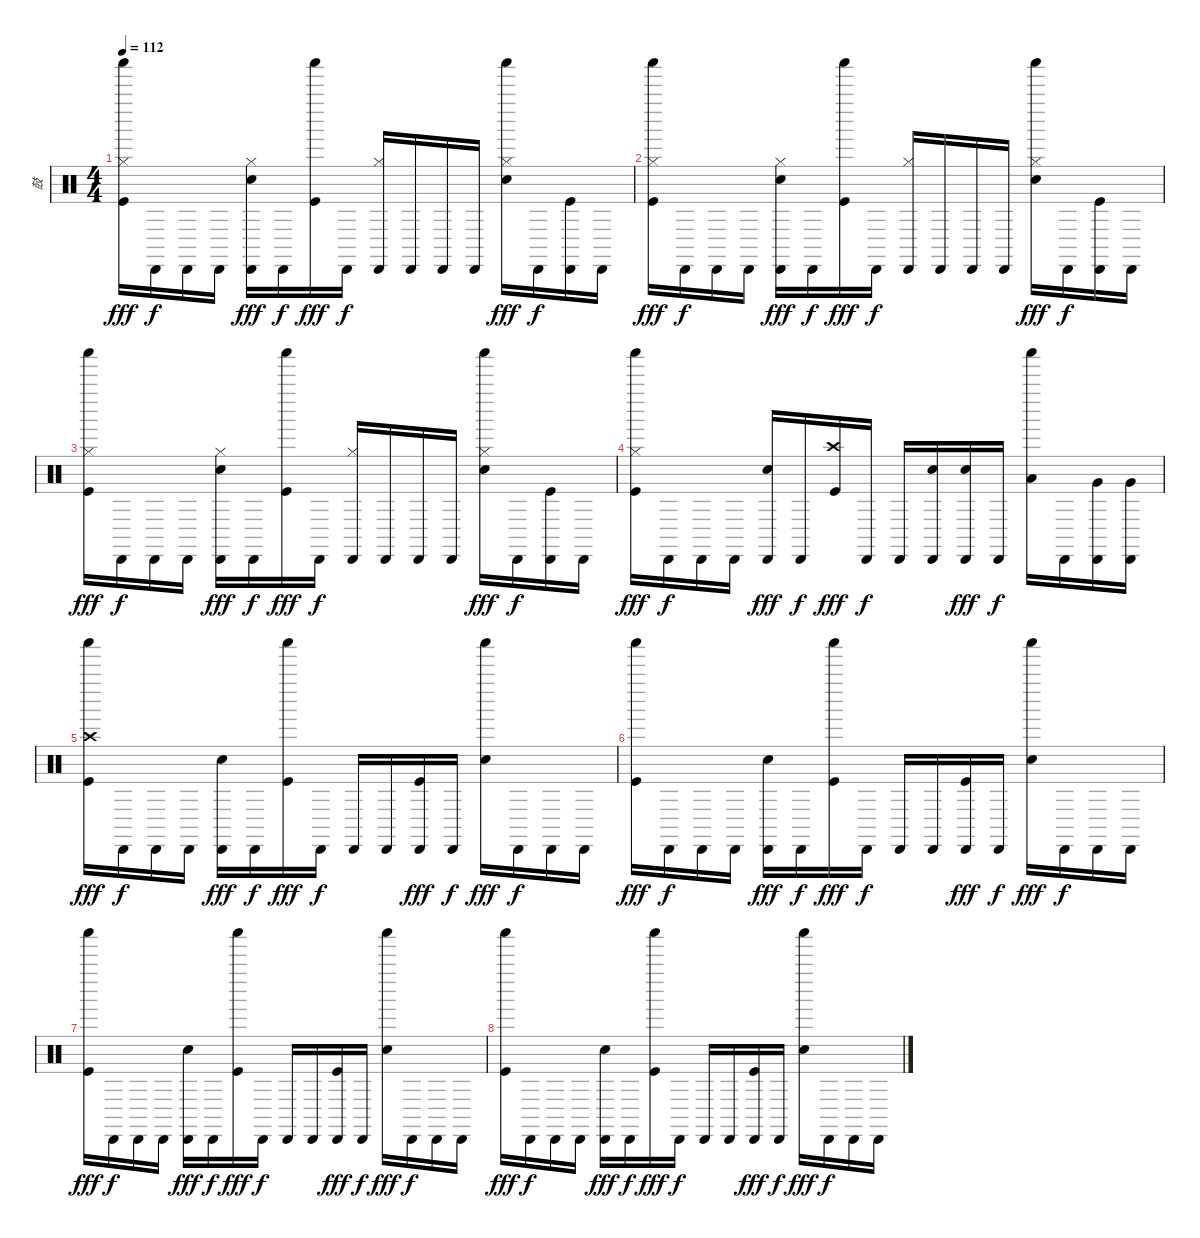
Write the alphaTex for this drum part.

\track ("鼓" "鼓") {instrument percussion}
\staff {score}
\articulation defaults
\ts (4 4)
\tempo 112
\clef neutral
\ks c
("Shaker (hit)" "Hi-Hat (closed)" "Kick (hit)").16{dy fff} "Cabasa (hit)".16{dy f} "Cabasa (hit)".16 "Cabasa (hit)".16 ("Cabasa (hit)" "Hi-Hat (closed)" "Electric Snare (hit)").16{dy fff} "Cabasa (hit)".16{dy f} ("Shaker (hit)" "Kick (hit)").16{dy fff} "Cabasa (hit)".16{dy f} ("Cabasa (hit)" "Hi-Hat (closed)").16 "Cabasa (hit)".16 "Cabasa (hit)".16 "Cabasa (hit)".16 ("Shaker (hit)" "Hi-Hat (closed)" "Electric Snare (hit)").16{dy fff} "Cabasa (hit)".16{dy f} ("Cabasa (hit)" "Kick (hit)").16 "Cabasa (hit)".16 |
("Shaker (hit)" "Hi-Hat (closed)" "Kick (hit)").16{dy fff} "Cabasa (hit)".16{dy f} "Cabasa (hit)".16 "Cabasa (hit)".16 ("Cabasa (hit)" "Hi-Hat (closed)" "Electric Snare (hit)").16{dy fff} "Cabasa (hit)".16{dy f} ("Shaker (hit)" "Kick (hit)").16{dy fff} "Cabasa (hit)".16{dy f} ("Cabasa (hit)" "Hi-Hat (closed)").16 "Cabasa (hit)".16 "Cabasa (hit)".16 "Cabasa (hit)".16 ("Shaker (hit)" "Hi-Hat (closed)" "Electric Snare (hit)").16{dy fff} "Cabasa (hit)".16{dy f} ("Cabasa (hit)" "Kick (hit)").16 "Cabasa (hit)".16 |
("Shaker (hit)" "Hi-Hat (closed)" "Kick (hit)").16{dy fff} "Cabasa (hit)".16{dy f} "Cabasa (hit)".16 "Cabasa (hit)".16 ("Cabasa (hit)" "Hi-Hat (closed)" "Electric Snare (hit)").16{dy fff} "Cabasa (hit)".16{dy f} ("Shaker (hit)" "Kick (hit)").16{dy fff} "Cabasa (hit)".16{dy f} ("Cabasa (hit)" "Hi-Hat (closed)").16 "Cabasa (hit)".16 "Cabasa (hit)".16 "Cabasa (hit)".16 ("Shaker (hit)" "Hi-Hat (closed)" "Electric Snare (hit)").16{dy fff} "Cabasa (hit)".16{dy f} ("Cabasa (hit)" "Kick (hit)").16 "Cabasa (hit)".16 |
("Shaker (hit)" "Hi-Hat (closed)" "Kick (hit)").16{dy fff} "Cabasa (hit)".16{dy f} "Cabasa (hit)".16 "Cabasa (hit)".16 ("Cabasa (hit)" "Electric Snare (hit)").16{dy fff} "Cabasa (hit)".16{dy f} ("Crash high (hit)" "Kick (hit)").16{dy fff} "Cabasa (hit)".16{dy f} "Cabasa (hit)".16 ("Cabasa (hit)" "Electric Snare (hit)").16 ("Cabasa (hit)" "Electric Snare (hit)").16{dy fff} "Cabasa (hit)".16{dy f} ("Shaker (hit)" "Low Tom (hit)").16 "Cabasa (hit)".16 ("Cabasa (hit)" "Very Low Tom (hit)").16 ("Cabasa (hit)" "Very Low Tom (hit)").16 |
("Shaker (hit)" "Crash high (hit)" "Kick (hit)").16{dy fff} "Cabasa (hit)".16{dy f} "Cabasa (hit)".16 "Cabasa (hit)".16 ("Cabasa (hit)" "Electric Snare (hit)").16{dy fff} "Cabasa (hit)".16{dy f} ("Shaker (hit)" "Kick (hit)").16{dy fff} "Cabasa (hit)".16{dy f} "Cabasa (hit)".16 "Cabasa (hit)".16 ("Cabasa (hit)" "Kick (hit)").16{dy fff} "Cabasa (hit)".16{dy f} ("Shaker (hit)" "Electric Snare (hit)").16{dy fff} "Cabasa (hit)".16{dy f} "Cabasa (hit)".16 "Cabasa (hit)".16 |
("Shaker (hit)" "Kick (hit)").16{dy fff} "Cabasa (hit)".16{dy f} "Cabasa (hit)".16 "Cabasa (hit)".16 ("Cabasa (hit)" "Electric Snare (hit)").16{dy fff} "Cabasa (hit)".16{dy f} ("Shaker (hit)" "Kick (hit)").16{dy fff} "Cabasa (hit)".16{dy f} "Cabasa (hit)".16 "Cabasa (hit)".16 ("Cabasa (hit)" "Kick (hit)").16{dy fff} "Cabasa (hit)".16{dy f} ("Shaker (hit)" "Electric Snare (hit)").16{dy fff} "Cabasa (hit)".16{dy f} "Cabasa (hit)".16 "Cabasa (hit)".16 |
("Shaker (hit)" "Kick (hit)").16{dy fff} "Cabasa (hit)".16{dy f} "Cabasa (hit)".16 "Cabasa (hit)".16 ("Cabasa (hit)" "Electric Snare (hit)").16{dy fff} "Cabasa (hit)".16{dy f} ("Shaker (hit)" "Kick (hit)").16{dy fff} "Cabasa (hit)".16{dy f} "Cabasa (hit)".16 "Cabasa (hit)".16 ("Cabasa (hit)" "Kick (hit)").16{dy fff} "Cabasa (hit)".16{dy f} ("Shaker (hit)" "Electric Snare (hit)").16{dy fff} "Cabasa (hit)".16{dy f} "Cabasa (hit)".16 "Cabasa (hit)".16 |
("Shaker (hit)" "Kick (hit)").16{dy fff} "Cabasa (hit)".16{dy f} "Cabasa (hit)".16 "Cabasa (hit)".16 ("Cabasa (hit)" "Electric Snare (hit)").16{dy fff} "Cabasa (hit)".16{dy f} ("Shaker (hit)" "Kick (hit)").16{dy fff} "Cabasa (hit)".16{dy f} "Cabasa (hit)".16 "Cabasa (hit)".16 ("Cabasa (hit)" "Kick (hit)").16{dy fff} "Cabasa (hit)".16{dy f} ("Shaker (hit)" "Electric Snare (hit)").16{dy fff} "Cabasa (hit)".16{dy f} "Cabasa (hit)".16 "Cabasa (hit)".16
